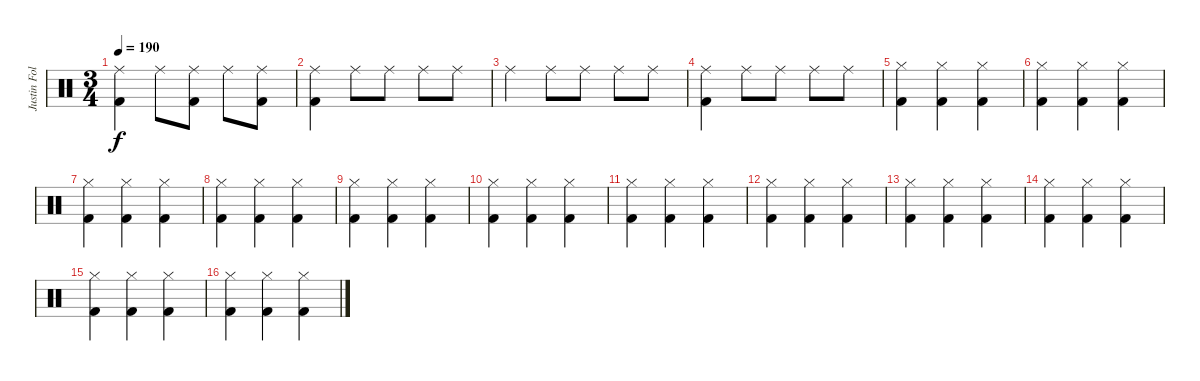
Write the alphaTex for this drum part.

\track ("Justin Foley" "Justin Fol") {instrument percussion}
\staff {score}
\articulation defaults
\ts (3 4)
\tempo 190
\clef neutral
\ks c
("Ride (middle)" "Kick (hit) 2").4{dy f} "Ride (middle)".8 ("Ride (middle)" "Kick (hit) 2").8 "Ride (middle)".8 ("Ride (middle)" "Kick (hit) 2").8 |
("Ride (middle)" "Kick (hit) 2").4 "Ride (middle)".8 "Ride (middle)".8 "Ride (middle)".8 "Ride (middle)".8 |
"Ride (middle)".4 "Ride (middle)".8 "Ride (middle)".8 "Ride (middle)".8 "Ride (middle)".8 |
("Ride (middle)" "Kick (hit) 2").4 "Ride (middle)".8 "Ride (middle)".8 "Ride (middle)".8 "Ride (middle)".8 |
("Hi-Hat (closed)" "Kick (hit) 2").4 ("Hi-Hat (closed)" "Kick (hit) 2").4 ("Hi-Hat (closed)" "Kick (hit) 2").4 |
("Hi-Hat (closed)" "Kick (hit) 2").4 ("Hi-Hat (closed)" "Kick (hit) 2").4 ("Hi-Hat (closed)" "Kick (hit) 2").4 |
("Hi-Hat (closed)" "Kick (hit) 2").4 ("Hi-Hat (closed)" "Kick (hit) 2").4 ("Hi-Hat (closed)" "Kick (hit) 2").4 |
("Hi-Hat (closed)" "Kick (hit) 2").4 ("Hi-Hat (closed)" "Kick (hit) 2").4 ("Hi-Hat (closed)" "Kick (hit) 2").4 |
("Hi-Hat (closed)" "Kick (hit) 2").4 ("Hi-Hat (closed)" "Kick (hit) 2").4 ("Hi-Hat (closed)" "Kick (hit) 2").4 |
("Hi-Hat (closed)" "Kick (hit) 2").4 ("Hi-Hat (closed)" "Kick (hit) 2").4 ("Hi-Hat (closed)" "Kick (hit) 2").4 |
("Hi-Hat (closed)" "Kick (hit) 2").4 ("Hi-Hat (closed)" "Kick (hit) 2").4 ("Hi-Hat (closed)" "Kick (hit) 2").4 |
("Hi-Hat (closed)" "Kick (hit) 2").4 ("Hi-Hat (closed)" "Kick (hit) 2").4 ("Hi-Hat (closed)" "Kick (hit) 2").4 |
("Hi-Hat (closed)" "Kick (hit) 2").4 ("Hi-Hat (closed)" "Kick (hit) 2").4 ("Hi-Hat (closed)" "Kick (hit) 2").4 |
("Hi-Hat (closed)" "Kick (hit) 2").4 ("Hi-Hat (closed)" "Kick (hit) 2").4 ("Hi-Hat (closed)" "Kick (hit) 2").4 |
("Hi-Hat (closed)" "Kick (hit) 2").4 ("Hi-Hat (closed)" "Kick (hit) 2").4 ("Hi-Hat (closed)" "Kick (hit) 2").4 |
("Hi-Hat (closed)" "Kick (hit) 2").4 ("Hi-Hat (closed)" "Kick (hit) 2").4 ("Hi-Hat (closed)" "Kick (hit) 2").4
